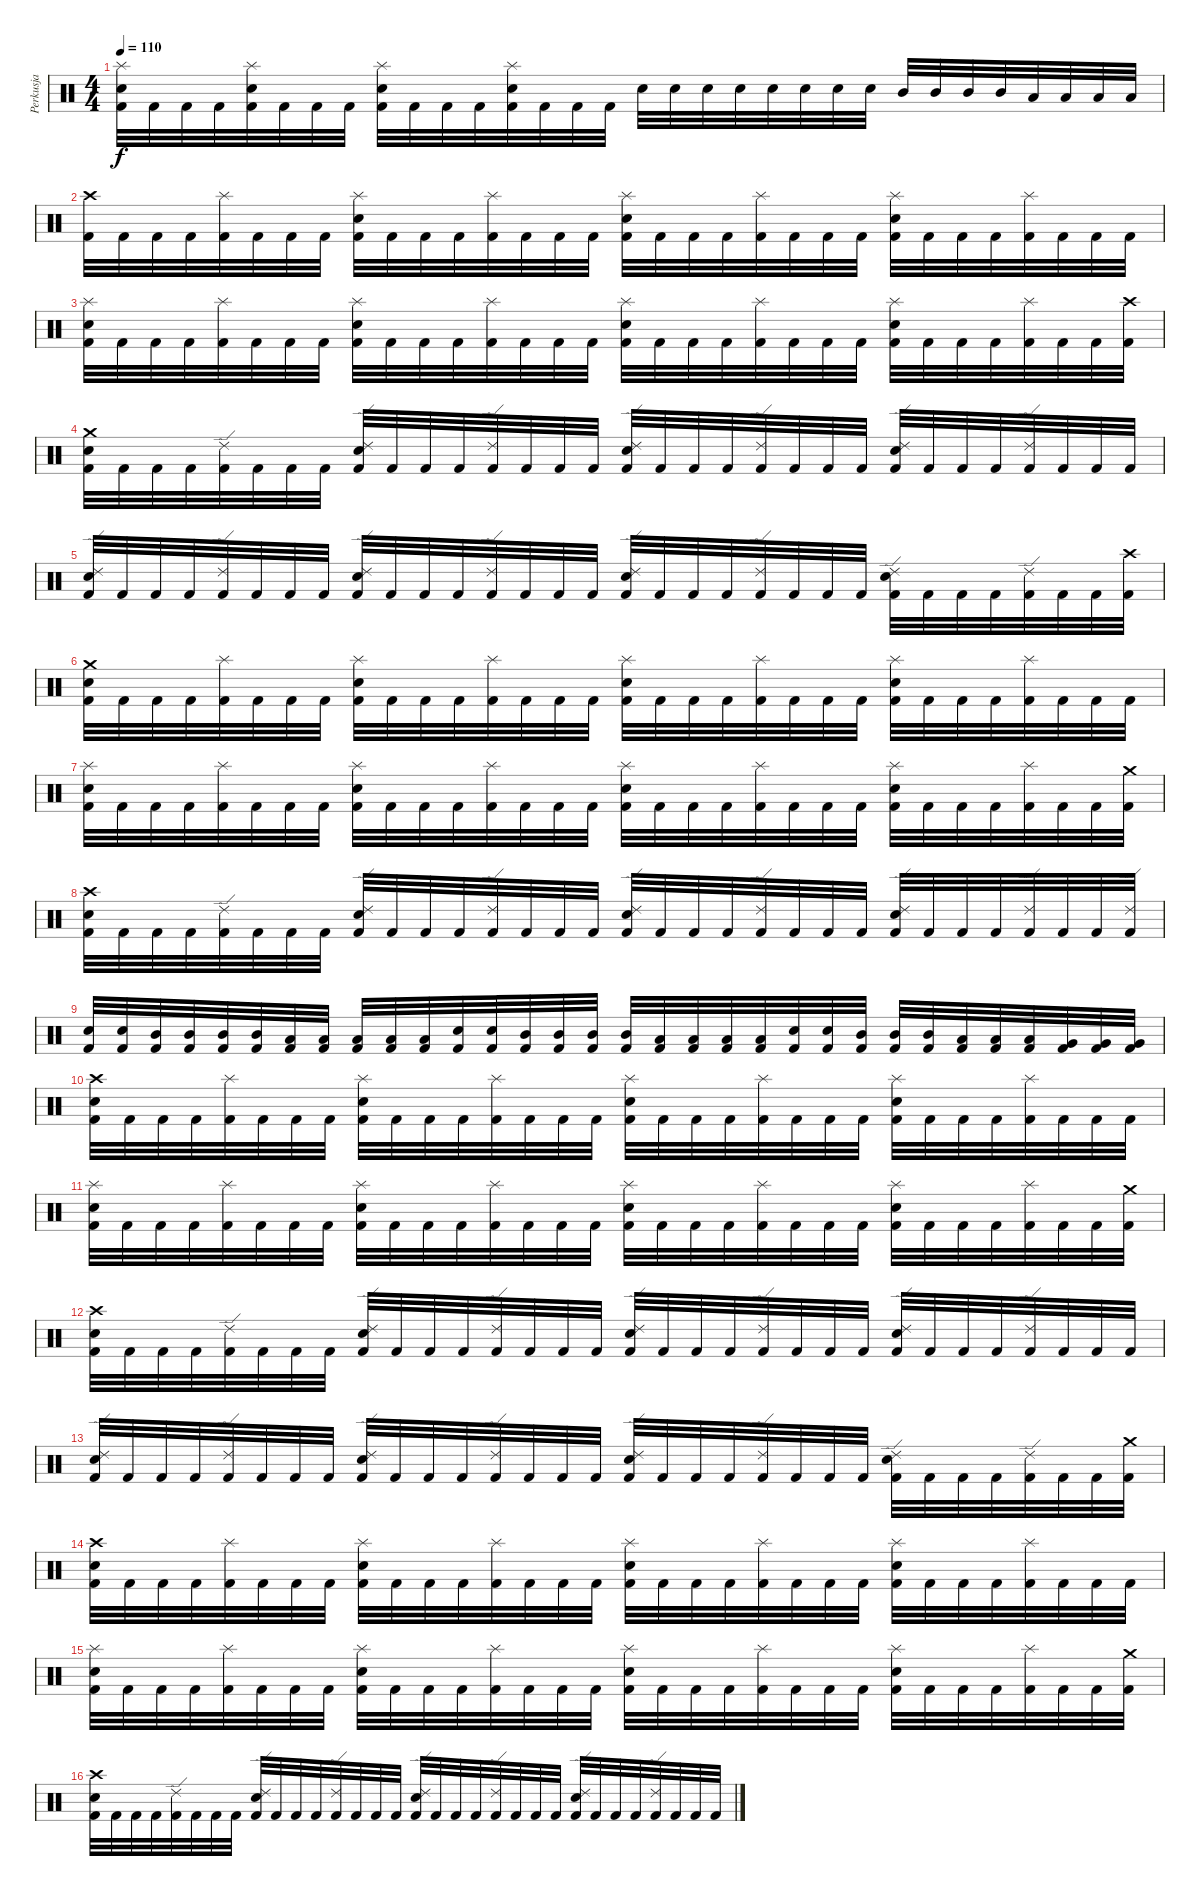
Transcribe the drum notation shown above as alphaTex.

\track ("Perkusja" "Perkusja") {instrument percussion}
\staff {score}
\articulation defaults
\ts (4 4)
\tempo 110
\clef neutral
\ks c
("Splash (hit)" "Snare (hit) 2" "Kick (hit) 2").32{dy f} "Kick (hit) 2".32 "Kick (hit) 2".32 "Kick (hit) 2".32 ("Splash (hit)" "Snare (hit) 2" "Kick (hit) 2").32 "Kick (hit) 2".32 "Kick (hit) 2".32 "Kick (hit) 2".32 ("Splash (hit)" "Snare (hit) 2" "Kick (hit) 2").32 "Kick (hit) 2".32 "Kick (hit) 2".32 "Kick (hit) 2".32 ("Splash (hit)" "Snare (hit) 2" "Kick (hit) 2").32 "Kick (hit) 2".32 "Kick (hit) 2".32 "Kick (hit) 2".32 "Snare (hit) 2".32 "Snare (hit) 2".32 "Snare (hit) 2".32 "Snare (hit) 2".32 "Snare (hit) 2".32 "Snare (hit) 2".32 "Snare (hit) 2".32 "Snare (hit) 2".32 "Mid Tom (hit)".32 "Mid Tom (hit)".32 "Mid Tom (hit)".32 "Mid Tom (hit)".32 "Low Tom (hit)".32 "Low Tom (hit)".32 "Low Tom (hit)".32 "Low Tom (hit)".32 |
("Crash high (hit)" "Kick (hit) 2").32 "Kick (hit) 2".32 "Kick (hit) 2".32 "Kick (hit) 2".32 ("Splash (hit)" "Kick (hit) 2").32 "Kick (hit) 2".32 "Kick (hit) 2".32 "Kick (hit) 2".32 ("Splash (hit)" "Snare (hit) 2" "Kick (hit) 2").32 "Kick (hit) 2".32 "Kick (hit) 2".32 "Kick (hit) 2".32 ("Splash (hit)" "Kick (hit) 2").32 "Kick (hit) 2".32 "Kick (hit) 2".32 "Kick (hit) 2".32 ("Splash (hit)" "Snare (hit) 2" "Kick (hit) 2").32 "Kick (hit) 2".32 "Kick (hit) 2".32 "Kick (hit) 2".32 ("Splash (hit)" "Kick (hit) 2").32 "Kick (hit) 2".32 "Kick (hit) 2".32 "Kick (hit) 2".32 ("Splash (hit)" "Snare (hit) 2" "Kick (hit) 2").32 "Kick (hit) 2".32 "Kick (hit) 2".32 "Kick (hit) 2".32 ("Splash (hit)" "Kick (hit) 2").32 "Kick (hit) 2".32 "Kick (hit) 2".32 "Kick (hit) 2".32 |
("Splash (hit)" "Snare (hit) 2" "Kick (hit) 2").32 "Kick (hit) 2".32 "Kick (hit) 2".32 "Kick (hit) 2".32 ("Splash (hit)" "Kick (hit) 2").32 "Kick (hit) 2".32 "Kick (hit) 2".32 "Kick (hit) 2".32 ("Splash (hit)" "Snare (hit) 2" "Kick (hit) 2").32 "Kick (hit) 2".32 "Kick (hit) 2".32 "Kick (hit) 2".32 ("Splash (hit)" "Kick (hit) 2").32 "Kick (hit) 2".32 "Kick (hit) 2".32 "Kick (hit) 2".32 ("Splash (hit)" "Snare (hit) 2" "Kick (hit) 2").32 "Kick (hit) 2".32 "Kick (hit) 2".32 "Kick (hit) 2".32 ("Splash (hit)" "Kick (hit) 2").32 "Kick (hit) 2".32 "Kick (hit) 2".32 "Kick (hit) 2".32 ("Splash (hit)" "Snare (hit) 2" "Kick (hit) 2").32 "Kick (hit) 2".32 "Kick (hit) 2".32 "Kick (hit) 2".32 ("Splash (hit)" "Kick (hit) 2").32 "Kick (hit) 2".32 "Kick (hit) 2".32 ("Crash high (hit)" "Kick (hit) 2").32 |
("Crash medium (hit)" "Snare (hit) 2" "Kick (hit) 2").32 "Kick (hit) 2".32 "Kick (hit) 2".32 "Kick (hit) 2".32 ("Ride (edge) 2" "Kick (hit) 2").32 "Kick (hit) 2".32 "Kick (hit) 2".32 "Kick (hit) 2".32 ("Ride (edge) 2" "Snare (hit) 2" "Kick (hit) 2").32 "Kick (hit) 2".32 "Kick (hit) 2".32 "Kick (hit) 2".32 ("Ride (edge) 2" "Kick (hit) 2").32 "Kick (hit) 2".32 "Kick (hit) 2".32 "Kick (hit) 2".32 ("Ride (edge) 2" "Snare (hit) 2" "Kick (hit) 2").32 "Kick (hit) 2".32 "Kick (hit) 2".32 "Kick (hit) 2".32 ("Ride (edge) 2" "Kick (hit) 2").32 "Kick (hit) 2".32 "Kick (hit) 2".32 "Kick (hit) 2".32 ("Ride (edge) 2" "Snare (hit) 2" "Kick (hit) 2").32 "Kick (hit) 2".32 "Kick (hit) 2".32 "Kick (hit) 2".32 ("Ride (edge) 2" "Kick (hit) 2").32 "Kick (hit) 2".32 "Kick (hit) 2".32 "Kick (hit) 2".32 |
("Ride (edge) 2" "Snare (hit) 2" "Kick (hit) 2").32 "Kick (hit) 2".32 "Kick (hit) 2".32 "Kick (hit) 2".32 ("Ride (edge) 2" "Kick (hit) 2").32 "Kick (hit) 2".32 "Kick (hit) 2".32 "Kick (hit) 2".32 ("Ride (edge) 2" "Snare (hit) 2" "Kick (hit) 2").32 "Kick (hit) 2".32 "Kick (hit) 2".32 "Kick (hit) 2".32 ("Ride (edge) 2" "Kick (hit) 2").32 "Kick (hit) 2".32 "Kick (hit) 2".32 "Kick (hit) 2".32 ("Ride (edge) 2" "Snare (hit) 2" "Kick (hit) 2").32 "Kick (hit) 2".32 "Kick (hit) 2".32 "Kick (hit) 2".32 ("Ride (edge) 2" "Kick (hit) 2").32 "Kick (hit) 2".32 "Kick (hit) 2".32 "Kick (hit) 2".32 ("Ride (edge) 2" "Snare (hit) 2" "Kick (hit) 2").32 "Kick (hit) 2".32 "Kick (hit) 2".32 "Kick (hit) 2".32 ("Ride (edge) 2" "Kick (hit) 2").32 "Kick (hit) 2".32 "Kick (hit) 2".32 ("Crash high (hit)" "Kick (hit) 2").32 |
("Crash medium (hit)" "Snare (hit) 2" "Kick (hit) 2").32 "Kick (hit) 2".32 "Kick (hit) 2".32 "Kick (hit) 2".32 ("Splash (hit)" "Kick (hit) 2").32 "Kick (hit) 2".32 "Kick (hit) 2".32 "Kick (hit) 2".32 ("Splash (hit)" "Snare (hit) 2" "Kick (hit) 2").32 "Kick (hit) 2".32 "Kick (hit) 2".32 "Kick (hit) 2".32 ("Splash (hit)" "Kick (hit) 2").32 "Kick (hit) 2".32 "Kick (hit) 2".32 "Kick (hit) 2".32 ("Splash (hit)" "Snare (hit) 2" "Kick (hit) 2").32 "Kick (hit) 2".32 "Kick (hit) 2".32 "Kick (hit) 2".32 ("Splash (hit)" "Kick (hit) 2").32 "Kick (hit) 2".32 "Kick (hit) 2".32 "Kick (hit) 2".32 ("Splash (hit)" "Snare (hit) 2" "Kick (hit) 2").32 "Kick (hit) 2".32 "Kick (hit) 2".32 "Kick (hit) 2".32 ("Splash (hit)" "Kick (hit) 2").32 "Kick (hit) 2".32 "Kick (hit) 2".32 "Kick (hit) 2".32 |
("Splash (hit)" "Snare (hit) 2" "Kick (hit) 2").32 "Kick (hit) 2".32 "Kick (hit) 2".32 "Kick (hit) 2".32 ("Splash (hit)" "Kick (hit) 2").32 "Kick (hit) 2".32 "Kick (hit) 2".32 "Kick (hit) 2".32 ("Splash (hit)" "Snare (hit) 2" "Kick (hit) 2").32 "Kick (hit) 2".32 "Kick (hit) 2".32 "Kick (hit) 2".32 ("Splash (hit)" "Kick (hit) 2").32 "Kick (hit) 2".32 "Kick (hit) 2".32 "Kick (hit) 2".32 ("Splash (hit)" "Snare (hit) 2" "Kick (hit) 2").32 "Kick (hit) 2".32 "Kick (hit) 2".32 "Kick (hit) 2".32 ("Splash (hit)" "Kick (hit) 2").32 "Kick (hit) 2".32 "Kick (hit) 2".32 "Kick (hit) 2".32 ("Splash (hit)" "Snare (hit) 2" "Kick (hit) 2").32 "Kick (hit) 2".32 "Kick (hit) 2".32 "Kick (hit) 2".32 ("Splash (hit)" "Kick (hit) 2").32 "Kick (hit) 2".32 "Kick (hit) 2".32 ("Crash medium (hit)" "Kick (hit) 2").32 |
("Crash high (hit)" "Snare (hit) 2" "Kick (hit) 2").32 "Kick (hit) 2".32 "Kick (hit) 2".32 "Kick (hit) 2".32 ("Ride (edge) 2" "Kick (hit) 2").32 "Kick (hit) 2".32 "Kick (hit) 2".32 "Kick (hit) 2".32 ("Ride (edge) 2" "Snare (hit) 2" "Kick (hit) 2").32 "Kick (hit) 2".32 "Kick (hit) 2".32 "Kick (hit) 2".32 ("Ride (edge) 2" "Kick (hit) 2").32 "Kick (hit) 2".32 "Kick (hit) 2".32 "Kick (hit) 2".32 ("Ride (edge) 2" "Snare (hit) 2" "Kick (hit) 2").32 "Kick (hit) 2".32 "Kick (hit) 2".32 "Kick (hit) 2".32 ("Ride (edge) 2" "Kick (hit) 2").32 "Kick (hit) 2".32 "Kick (hit) 2".32 "Kick (hit) 2".32 ("Ride (edge) 2" "Snare (hit) 2" "Kick (hit) 2").32 "Kick (hit) 2".32 "Kick (hit) 2".32 "Kick (hit) 2".32 ("Ride (edge) 2" "Kick (hit) 2").32 "Kick (hit) 2".32 "Kick (hit) 2".32 ("Ride (edge) 2" "Kick (hit) 2").32 |
("Snare (hit) 2" "Kick (hit) 2").32 ("Snare (hit) 2" "Kick (hit) 2").32 ("Mid Tom (hit)" "Kick (hit) 2").32 ("Mid Tom (hit)" "Kick (hit) 2").32 ("Mid Tom (hit)" "Kick (hit) 2").32 ("Mid Tom (hit)" "Kick (hit) 2").32 ("Low Tom (hit)" "Kick (hit) 2").32 ("Low Tom (hit)" "Kick (hit) 2").32 ("Low Tom (hit)" "Kick (hit) 2").32 ("Low Tom (hit)" "Kick (hit) 2").32 ("Low Tom (hit)" "Kick (hit) 2").32 ("Snare (hit) 2" "Kick (hit) 2").32 ("Snare (hit) 2" "Kick (hit) 2").32 ("Mid Tom (hit)" "Kick (hit) 2").32 ("Mid Tom (hit)" "Kick (hit) 2").32 ("Mid Tom (hit)" "Kick (hit) 2").32 ("Mid Tom (hit)" "Kick (hit) 2").32 ("Low Tom (hit)" "Kick (hit) 2").32 ("Low Tom (hit)" "Kick (hit) 2").32 ("Low Tom (hit)" "Kick (hit) 2").32 ("Low Tom (hit)" "Kick (hit) 2").32 ("Snare (hit) 2" "Kick (hit) 2").32 ("Snare (hit) 2" "Kick (hit) 2").32 ("Mid Tom (hit)" "Kick (hit) 2").32 ("Mid Tom (hit)" "Kick (hit) 2").32 ("Mid Tom (hit)" "Kick (hit) 2").32 ("Low Tom (hit)" "Kick (hit) 2").32 ("Low Tom (hit)" "Kick (hit) 2").32 ("Low Tom (hit)" "Kick (hit) 2").32 ("Very Low Tom (hit)" "Kick (hit) 2").32 ("Very Low Tom (hit)" "Kick (hit) 2").32 ("Very Low Tom (hit)" "Kick (hit) 2").32 |
("Crash high (hit)" "Snare (hit) 2" "Kick (hit) 2").32 "Kick (hit) 2".32 "Kick (hit) 2".32 "Kick (hit) 2".32 ("Splash (hit)" "Kick (hit) 2").32 "Kick (hit) 2".32 "Kick (hit) 2".32 "Kick (hit) 2".32 ("Splash (hit)" "Snare (hit) 2" "Kick (hit) 2").32 "Kick (hit) 2".32 "Kick (hit) 2".32 "Kick (hit) 2".32 ("Splash (hit)" "Kick (hit) 2").32 "Kick (hit) 2".32 "Kick (hit) 2".32 "Kick (hit) 2".32 ("Splash (hit)" "Snare (hit) 2" "Kick (hit) 2").32 "Kick (hit) 2".32 "Kick (hit) 2".32 "Kick (hit) 2".32 ("Splash (hit)" "Kick (hit) 2").32 "Kick (hit) 2".32 "Kick (hit) 2".32 "Kick (hit) 2".32 ("Splash (hit)" "Snare (hit) 2" "Kick (hit) 2").32 "Kick (hit) 2".32 "Kick (hit) 2".32 "Kick (hit) 2".32 ("Splash (hit)" "Kick (hit) 2").32 "Kick (hit) 2".32 "Kick (hit) 2".32 "Kick (hit) 2".32 |
("Splash (hit)" "Snare (hit) 2" "Kick (hit) 2").32 "Kick (hit) 2".32 "Kick (hit) 2".32 "Kick (hit) 2".32 ("Splash (hit)" "Kick (hit) 2").32 "Kick (hit) 2".32 "Kick (hit) 2".32 "Kick (hit) 2".32 ("Splash (hit)" "Snare (hit) 2" "Kick (hit) 2").32 "Kick (hit) 2".32 "Kick (hit) 2".32 "Kick (hit) 2".32 ("Splash (hit)" "Kick (hit) 2").32 "Kick (hit) 2".32 "Kick (hit) 2".32 "Kick (hit) 2".32 ("Splash (hit)" "Snare (hit) 2" "Kick (hit) 2").32 "Kick (hit) 2".32 "Kick (hit) 2".32 "Kick (hit) 2".32 ("Splash (hit)" "Kick (hit) 2").32 "Kick (hit) 2".32 "Kick (hit) 2".32 "Kick (hit) 2".32 ("Splash (hit)" "Snare (hit) 2" "Kick (hit) 2").32 "Kick (hit) 2".32 "Kick (hit) 2".32 "Kick (hit) 2".32 ("Splash (hit)" "Kick (hit) 2").32 "Kick (hit) 2".32 "Kick (hit) 2".32 ("Crash medium (hit)" "Kick (hit) 2").32 |
("Crash high (hit)" "Snare (hit) 2" "Kick (hit) 2").32 "Kick (hit) 2".32 "Kick (hit) 2".32 "Kick (hit) 2".32 ("Ride (edge) 2" "Kick (hit) 2").32 "Kick (hit) 2".32 "Kick (hit) 2".32 "Kick (hit) 2".32 ("Ride (edge) 2" "Snare (hit) 2" "Kick (hit) 2").32 "Kick (hit) 2".32 "Kick (hit) 2".32 "Kick (hit) 2".32 ("Ride (edge) 2" "Kick (hit) 2").32 "Kick (hit) 2".32 "Kick (hit) 2".32 "Kick (hit) 2".32 ("Ride (edge) 2" "Snare (hit) 2" "Kick (hit) 2").32 "Kick (hit) 2".32 "Kick (hit) 2".32 "Kick (hit) 2".32 ("Ride (edge) 2" "Kick (hit) 2").32 "Kick (hit) 2".32 "Kick (hit) 2".32 "Kick (hit) 2".32 ("Ride (edge) 2" "Snare (hit) 2" "Kick (hit) 2").32 "Kick (hit) 2".32 "Kick (hit) 2".32 "Kick (hit) 2".32 ("Ride (edge) 2" "Kick (hit) 2").32 "Kick (hit) 2".32 "Kick (hit) 2".32 "Kick (hit) 2".32 |
("Ride (edge) 2" "Snare (hit) 2" "Kick (hit) 2").32 "Kick (hit) 2".32 "Kick (hit) 2".32 "Kick (hit) 2".32 ("Ride (edge) 2" "Kick (hit) 2").32 "Kick (hit) 2".32 "Kick (hit) 2".32 "Kick (hit) 2".32 ("Ride (edge) 2" "Snare (hit) 2" "Kick (hit) 2").32 "Kick (hit) 2".32 "Kick (hit) 2".32 "Kick (hit) 2".32 ("Ride (edge) 2" "Kick (hit) 2").32 "Kick (hit) 2".32 "Kick (hit) 2".32 "Kick (hit) 2".32 ("Ride (edge) 2" "Snare (hit) 2" "Kick (hit) 2").32 "Kick (hit) 2".32 "Kick (hit) 2".32 "Kick (hit) 2".32 ("Ride (edge) 2" "Kick (hit) 2").32 "Kick (hit) 2".32 "Kick (hit) 2".32 "Kick (hit) 2".32 ("Ride (edge) 2" "Snare (hit) 2" "Kick (hit) 2").32 "Kick (hit) 2".32 "Kick (hit) 2".32 "Kick (hit) 2".32 ("Ride (edge) 2" "Kick (hit) 2").32 "Kick (hit) 2".32 "Kick (hit) 2".32 ("Crash medium (hit)" "Kick (hit) 2").32 |
("Crash high (hit)" "Snare (hit) 2" "Kick (hit) 2").32 "Kick (hit) 2".32 "Kick (hit) 2".32 "Kick (hit) 2".32 ("Splash (hit)" "Kick (hit) 2").32 "Kick (hit) 2".32 "Kick (hit) 2".32 "Kick (hit) 2".32 ("Splash (hit)" "Snare (hit) 2" "Kick (hit) 2").32 "Kick (hit) 2".32 "Kick (hit) 2".32 "Kick (hit) 2".32 ("Splash (hit)" "Kick (hit) 2").32 "Kick (hit) 2".32 "Kick (hit) 2".32 "Kick (hit) 2".32 ("Splash (hit)" "Snare (hit) 2" "Kick (hit) 2").32 "Kick (hit) 2".32 "Kick (hit) 2".32 "Kick (hit) 2".32 ("Splash (hit)" "Kick (hit) 2").32 "Kick (hit) 2".32 "Kick (hit) 2".32 "Kick (hit) 2".32 ("Splash (hit)" "Snare (hit) 2" "Kick (hit) 2").32 "Kick (hit) 2".32 "Kick (hit) 2".32 "Kick (hit) 2".32 ("Splash (hit)" "Kick (hit) 2").32 "Kick (hit) 2".32 "Kick (hit) 2".32 "Kick (hit) 2".32 |
("Splash (hit)" "Snare (hit) 2" "Kick (hit) 2").32 "Kick (hit) 2".32 "Kick (hit) 2".32 "Kick (hit) 2".32 ("Splash (hit)" "Kick (hit) 2").32 "Kick (hit) 2".32 "Kick (hit) 2".32 "Kick (hit) 2".32 ("Splash (hit)" "Snare (hit) 2" "Kick (hit) 2").32 "Kick (hit) 2".32 "Kick (hit) 2".32 "Kick (hit) 2".32 ("Splash (hit)" "Kick (hit) 2").32 "Kick (hit) 2".32 "Kick (hit) 2".32 "Kick (hit) 2".32 ("Splash (hit)" "Snare (hit) 2" "Kick (hit) 2").32 "Kick (hit) 2".32 "Kick (hit) 2".32 "Kick (hit) 2".32 ("Splash (hit)" "Kick (hit) 2").32 "Kick (hit) 2".32 "Kick (hit) 2".32 "Kick (hit) 2".32 ("Splash (hit)" "Snare (hit) 2" "Kick (hit) 2").32 "Kick (hit) 2".32 "Kick (hit) 2".32 "Kick (hit) 2".32 ("Splash (hit)" "Kick (hit) 2").32 "Kick (hit) 2".32 "Kick (hit) 2".32 ("Crash medium (hit)" "Kick (hit) 2").32 |
("Crash high (hit)" "Snare (hit) 2" "Kick (hit) 2").32 "Kick (hit) 2".32 "Kick (hit) 2".32 "Kick (hit) 2".32 ("Ride (edge) 2" "Kick (hit) 2").32 "Kick (hit) 2".32 "Kick (hit) 2".32 "Kick (hit) 2".32 ("Ride (edge) 2" "Snare (hit) 2" "Kick (hit) 2").32 "Kick (hit) 2".32 "Kick (hit) 2".32 "Kick (hit) 2".32 ("Ride (edge) 2" "Kick (hit) 2").32 "Kick (hit) 2".32 "Kick (hit) 2".32 "Kick (hit) 2".32 ("Ride (edge) 2" "Snare (hit) 2" "Kick (hit) 2").32 "Kick (hit) 2".32 "Kick (hit) 2".32 "Kick (hit) 2".32 ("Ride (edge) 2" "Kick (hit) 2").32 "Kick (hit) 2".32 "Kick (hit) 2".32 "Kick (hit) 2".32 ("Ride (edge) 2" "Snare (hit) 2" "Kick (hit) 2").32 "Kick (hit) 2".32 "Kick (hit) 2".32 "Kick (hit) 2".32 ("Ride (edge) 2" "Kick (hit) 2").32 "Kick (hit) 2".32 "Kick (hit) 2".32 "Kick (hit) 2".32
